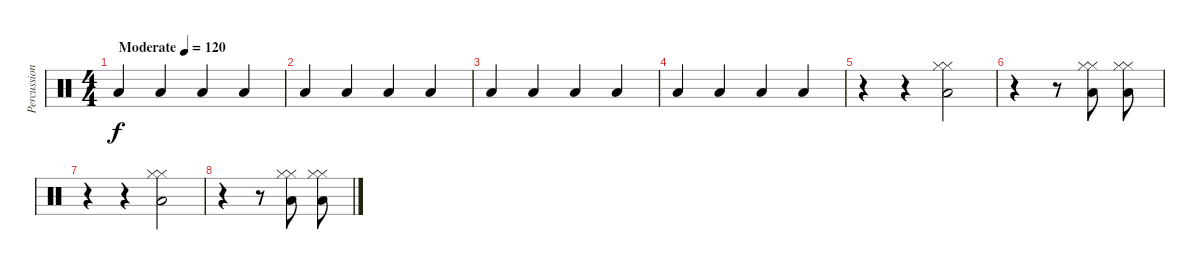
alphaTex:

\track ("Percussion" "Percussion") {instrument percussion}
\staff {score}
\articulation defaults
\ts (4 4)
\tempo (120 "Moderate")
\clef neutral
\ks c "Low Tom (hit)".4{dy f} "Low Tom (hit)".4 "Low Tom (hit)".4 "Low Tom (hit)".4
|
"Low Tom (hit)".4 "Low Tom (hit)".4 "Low Tom (hit)".4 "Low Tom (hit)".4 |
"Low Tom (hit)".4 "Low Tom (hit)".4 "Low Tom (hit)".4 "Low Tom (hit)".4 |
"Low Tom (hit)".4 "Low Tom (hit)".4 "Low Tom (hit)".4 "Low Tom (hit)".4 |
r.4 r.4 ("Hi-Hat (closed)" "Low Floor Tom (hit)" "Hi-Hat (closed)").2 |
r.4 r.8 ("Hi-Hat (closed)" "Low Floor Tom (hit)" "Hi-Hat (closed)").8 ("Hi-Hat (closed)" "Low Floor Tom (hit)" "Hi-Hat (closed)").8 |
r.4 r.4 ("Hi-Hat (closed)" "Low Floor Tom (hit)" "Hi-Hat (closed)").2 |
r.4 r.8 ("Hi-Hat (closed)" "Low Floor Tom (hit)" "Hi-Hat (closed)").8 ("Hi-Hat (closed)" "Low Floor Tom (hit)" "Hi-Hat (closed)").8
